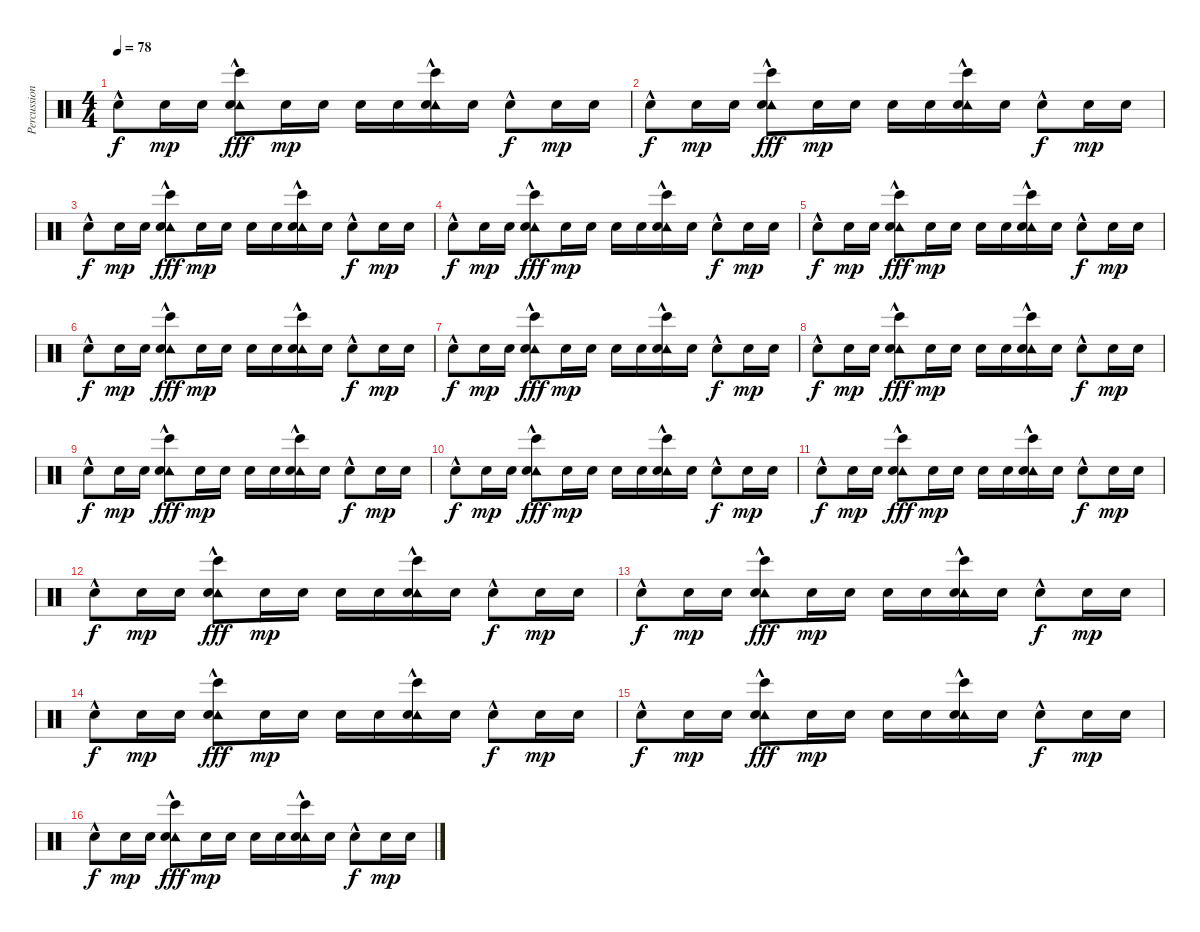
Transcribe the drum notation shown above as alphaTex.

\track ("Percussion" "Percussion") {instrument percussion}
\staff {score}
\articulation defaults
\ts (4 4)
\tempo 78
\clef neutral
\ks c "Snare (hit) 2"{hac}.8{dy f} "Snare (hit) 2".16{dy mp} "Snare (hit) 2".16
("Bongo High (hit)"{hac} "Tambourine (hit)"{hac} "Snare (hit) 2"{hac}).8{dy fff} "Snare (hit) 2".16{dy mp} "Snare (hit) 2".16 "Snare (hit) 2".16 "Snare (hit) 2".16 ("Bongo High (hit)"{hac} "Tambourine (hit)"{hac} "Snare (hit) 2").16 "Snare (hit) 2".16 "Snare (hit) 2"{hac}.8{dy f} "Snare (hit) 2".16{dy mp} "Snare (hit) 2".16 |
"Snare (hit) 2"{hac}.8{dy f} "Snare (hit) 2".16{dy mp} "Snare (hit) 2".16 ("Bongo High (hit)"{hac} "Tambourine (hit)"{hac} "Snare (hit) 2"{hac}).8{dy fff} "Snare (hit) 2".16{dy mp} "Snare (hit) 2".16 "Snare (hit) 2".16 "Snare (hit) 2".16 ("Bongo High (hit)"{hac} "Tambourine (hit)"{hac} "Snare (hit) 2").16 "Snare (hit) 2".16 "Snare (hit) 2"{hac}.8{dy f} "Snare (hit) 2".16{dy mp} "Snare (hit) 2".16 |
"Snare (hit) 2"{hac}.8{dy f} "Snare (hit) 2".16{dy mp} "Snare (hit) 2".16 ("Bongo High (hit)"{hac} "Tambourine (hit)"{hac} "Snare (hit) 2"{hac}).8{dy fff} "Snare (hit) 2".16{dy mp} "Snare (hit) 2".16 "Snare (hit) 2".16 "Snare (hit) 2".16 ("Bongo High (hit)"{hac} "Tambourine (hit)"{hac} "Snare (hit) 2").16 "Snare (hit) 2".16 "Snare (hit) 2"{hac}.8{dy f} "Snare (hit) 2".16{dy mp} "Snare (hit) 2".16 |
"Snare (hit) 2"{hac}.8{dy f} "Snare (hit) 2".16{dy mp} "Snare (hit) 2".16 ("Bongo High (hit)"{hac} "Tambourine (hit)"{hac} "Snare (hit) 2"{hac}).8{dy fff} "Snare (hit) 2".16{dy mp} "Snare (hit) 2".16 "Snare (hit) 2".16 "Snare (hit) 2".16 ("Bongo High (hit)"{hac} "Tambourine (hit)"{hac} "Snare (hit) 2").16 "Snare (hit) 2".16 "Snare (hit) 2"{hac}.8{dy f} "Snare (hit) 2".16{dy mp} "Snare (hit) 2".16 |
"Snare (hit) 2"{hac}.8{dy f} "Snare (hit) 2".16{dy mp} "Snare (hit) 2".16 ("Bongo High (hit)"{hac} "Tambourine (hit)"{hac} "Snare (hit) 2"{hac}).8{dy fff} "Snare (hit) 2".16{dy mp} "Snare (hit) 2".16 "Snare (hit) 2".16 "Snare (hit) 2".16 ("Bongo High (hit)"{hac} "Tambourine (hit)"{hac} "Snare (hit) 2").16 "Snare (hit) 2".16 "Snare (hit) 2"{hac}.8{dy f} "Snare (hit) 2".16{dy mp} "Snare (hit) 2".16 |
"Snare (hit) 2"{hac}.8{dy f} "Snare (hit) 2".16{dy mp} "Snare (hit) 2".16 ("Bongo High (hit)"{hac} "Tambourine (hit)"{hac} "Snare (hit) 2"{hac}).8{dy fff} "Snare (hit) 2".16{dy mp} "Snare (hit) 2".16 "Snare (hit) 2".16 "Snare (hit) 2".16 ("Bongo High (hit)"{hac} "Tambourine (hit)"{hac} "Snare (hit) 2").16 "Snare (hit) 2".16 "Snare (hit) 2"{hac}.8{dy f} "Snare (hit) 2".16{dy mp} "Snare (hit) 2".16 |
"Snare (hit) 2"{hac}.8{dy f} "Snare (hit) 2".16{dy mp} "Snare (hit) 2".16 ("Bongo High (hit)"{hac} "Tambourine (hit)"{hac} "Snare (hit) 2"{hac}).8{dy fff} "Snare (hit) 2".16{dy mp} "Snare (hit) 2".16 "Snare (hit) 2".16 "Snare (hit) 2".16 ("Bongo High (hit)"{hac} "Tambourine (hit)"{hac} "Snare (hit) 2").16 "Snare (hit) 2".16 "Snare (hit) 2"{hac}.8{dy f} "Snare (hit) 2".16{dy mp} "Snare (hit) 2".16 |
"Snare (hit) 2"{hac}.8{dy f} "Snare (hit) 2".16{dy mp} "Snare (hit) 2".16 ("Bongo High (hit)"{hac} "Tambourine (hit)"{hac} "Snare (hit) 2"{hac}).8{dy fff} "Snare (hit) 2".16{dy mp} "Snare (hit) 2".16 "Snare (hit) 2".16 "Snare (hit) 2".16 ("Bongo High (hit)"{hac} "Tambourine (hit)"{hac} "Snare (hit) 2").16 "Snare (hit) 2".16 "Snare (hit) 2"{hac}.8{dy f} "Snare (hit) 2".16{dy mp} "Snare (hit) 2".16 |
"Snare (hit) 2"{hac}.8{dy f} "Snare (hit) 2".16{dy mp} "Snare (hit) 2".16 ("Bongo High (hit)"{hac} "Tambourine (hit)"{hac} "Snare (hit) 2"{hac}).8{dy fff} "Snare (hit) 2".16{dy mp} "Snare (hit) 2".16 "Snare (hit) 2".16 "Snare (hit) 2".16 ("Bongo High (hit)"{hac} "Tambourine (hit)"{hac} "Snare (hit) 2").16 "Snare (hit) 2".16 "Snare (hit) 2"{hac}.8{dy f} "Snare (hit) 2".16{dy mp} "Snare (hit) 2".16 |
"Snare (hit) 2"{hac}.8{dy f} "Snare (hit) 2".16{dy mp} "Snare (hit) 2".16 ("Bongo High (hit)"{hac} "Tambourine (hit)"{hac} "Snare (hit) 2"{hac}).8{dy fff} "Snare (hit) 2".16{dy mp} "Snare (hit) 2".16 "Snare (hit) 2".16 "Snare (hit) 2".16 ("Bongo High (hit)"{hac} "Tambourine (hit)"{hac} "Snare (hit) 2").16 "Snare (hit) 2".16 "Snare (hit) 2"{hac}.8{dy f} "Snare (hit) 2".16{dy mp} "Snare (hit) 2".16 |
"Snare (hit) 2"{hac}.8{dy f} "Snare (hit) 2".16{dy mp} "Snare (hit) 2".16 ("Bongo High (hit)"{hac} "Tambourine (hit)"{hac} "Snare (hit) 2"{hac}).8{dy fff} "Snare (hit) 2".16{dy mp} "Snare (hit) 2".16 "Snare (hit) 2".16 "Snare (hit) 2".16 ("Bongo High (hit)"{hac} "Tambourine (hit)"{hac} "Snare (hit) 2").16 "Snare (hit) 2".16 "Snare (hit) 2"{hac}.8{dy f} "Snare (hit) 2".16{dy mp} "Snare (hit) 2".16 |
"Snare (hit) 2"{hac}.8{dy f} "Snare (hit) 2".16{dy mp} "Snare (hit) 2".16 ("Bongo High (hit)"{hac} "Tambourine (hit)"{hac} "Snare (hit) 2"{hac}).8{dy fff} "Snare (hit) 2".16{dy mp} "Snare (hit) 2".16 "Snare (hit) 2".16 "Snare (hit) 2".16 ("Bongo High (hit)"{hac} "Tambourine (hit)"{hac} "Snare (hit) 2").16 "Snare (hit) 2".16 "Snare (hit) 2"{hac}.8{dy f} "Snare (hit) 2".16{dy mp} "Snare (hit) 2".16 |
"Snare (hit) 2"{hac}.8{dy f} "Snare (hit) 2".16{dy mp} "Snare (hit) 2".16 ("Bongo High (hit)"{hac} "Tambourine (hit)"{hac} "Snare (hit) 2"{hac}).8{dy fff} "Snare (hit) 2".16{dy mp} "Snare (hit) 2".16 "Snare (hit) 2".16 "Snare (hit) 2".16 ("Bongo High (hit)"{hac} "Tambourine (hit)"{hac} "Snare (hit) 2").16 "Snare (hit) 2".16 "Snare (hit) 2"{hac}.8{dy f} "Snare (hit) 2".16{dy mp} "Snare (hit) 2".16 |
"Snare (hit) 2"{hac}.8{dy f} "Snare (hit) 2".16{dy mp} "Snare (hit) 2".16 ("Bongo High (hit)"{hac} "Tambourine (hit)"{hac} "Snare (hit) 2"{hac}).8{dy fff} "Snare (hit) 2".16{dy mp} "Snare (hit) 2".16 "Snare (hit) 2".16 "Snare (hit) 2".16 ("Bongo High (hit)"{hac} "Tambourine (hit)"{hac} "Snare (hit) 2").16 "Snare (hit) 2".16 "Snare (hit) 2"{hac}.8{dy f} "Snare (hit) 2".16{dy mp} "Snare (hit) 2".16 |
"Snare (hit) 2"{hac}.8{dy f} "Snare (hit) 2".16{dy mp} "Snare (hit) 2".16 ("Bongo High (hit)"{hac} "Tambourine (hit)"{hac} "Snare (hit) 2"{hac}).8{dy fff} "Snare (hit) 2".16{dy mp} "Snare (hit) 2".16 "Snare (hit) 2".16 "Snare (hit) 2".16 ("Bongo High (hit)"{hac} "Tambourine (hit)"{hac} "Snare (hit) 2").16 "Snare (hit) 2".16 "Snare (hit) 2"{hac}.8{dy f} "Snare (hit) 2".16{dy mp} "Snare (hit) 2".16 |
"Snare (hit) 2"{hac}.8{dy f} "Snare (hit) 2".16{dy mp} "Snare (hit) 2".16 ("Bongo High (hit)"{hac} "Tambourine (hit)"{hac} "Snare (hit) 2"{hac}).8{dy fff} "Snare (hit) 2".16{dy mp} "Snare (hit) 2".16 "Snare (hit) 2".16 "Snare (hit) 2".16 ("Bongo High (hit)"{hac} "Tambourine (hit)"{hac} "Snare (hit) 2").16 "Snare (hit) 2".16 "Snare (hit) 2"{hac}.8{dy f} "Snare (hit) 2".16{dy mp} "Snare (hit) 2".16
